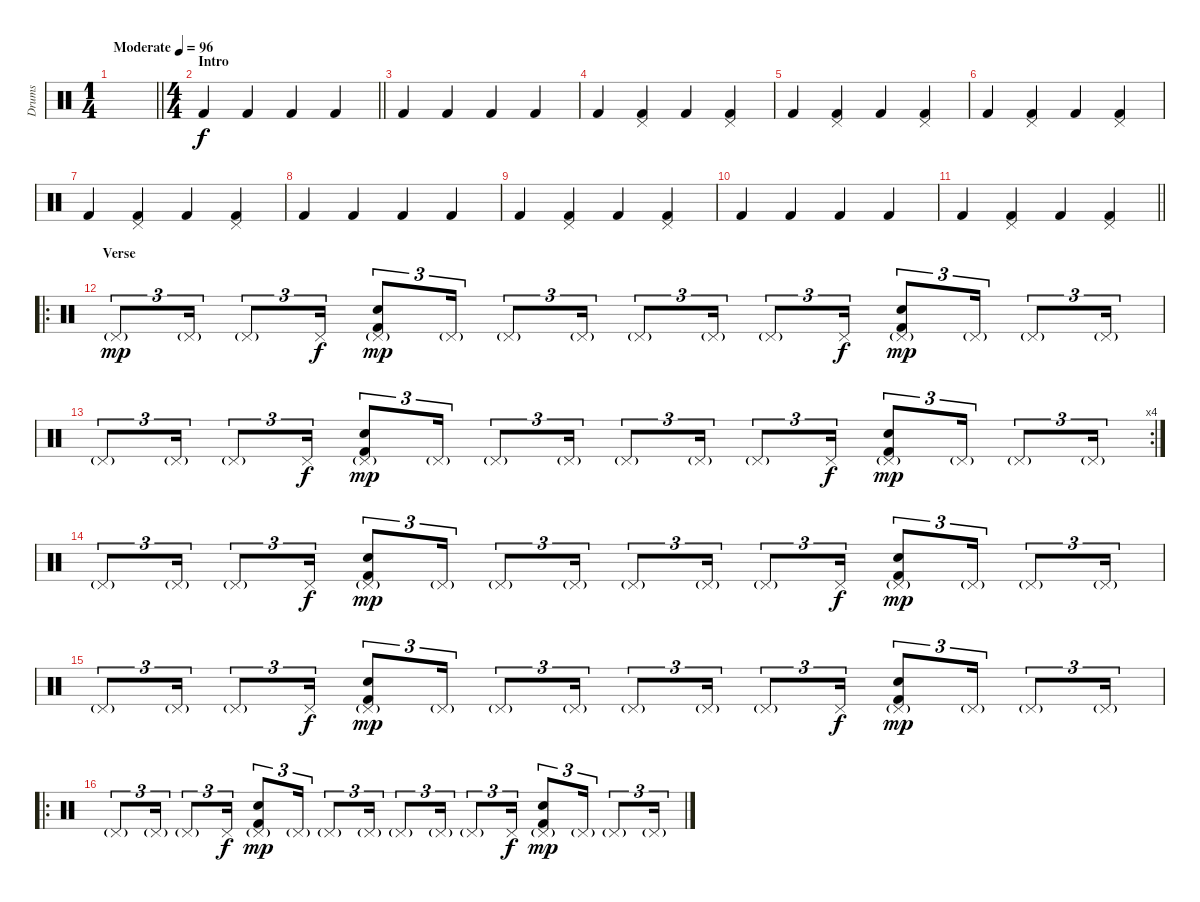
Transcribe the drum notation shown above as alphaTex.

\track ("Drums" "Drums") {instrument percussion}
\staff {score}
\articulation defaults
\ts (1 4)
\tempo (96 "Moderate")
\clef neutral
\barLineRight lightlight
\ks c
|
\ts (4 4)
\section ("" "Intro")
\barLineRight lightlight "Kick (hit) 2".4 "Kick (hit) 2".4 "Kick (hit) 2".4 "Kick (hit) 2".4
|
"Kick (hit) 2".4 "Kick (hit) 2".4 "Kick (hit) 2".4 "Kick (hit) 2".4 |
"Kick (hit) 2".4 ("Pedal Hi-Hat (hit)" "Kick (hit) 2").4 "Kick (hit) 2".4 ("Pedal Hi-Hat (hit)" "Kick (hit) 2").4 |
"Kick (hit) 2".4 ("Pedal Hi-Hat (hit)" "Kick (hit) 2").4 "Kick (hit) 2".4 ("Pedal Hi-Hat (hit)" "Kick (hit) 2").4 |
"Kick (hit) 2".4 ("Pedal Hi-Hat (hit)" "Kick (hit) 2").4 "Kick (hit) 2".4 ("Pedal Hi-Hat (hit)" "Kick (hit) 2").4 |
"Kick (hit) 2".4 ("Pedal Hi-Hat (hit)" "Kick (hit) 2").4 "Kick (hit) 2".4 ("Pedal Hi-Hat (hit)" "Kick (hit) 2").4 |
"Kick (hit) 2".4 "Kick (hit) 2".4 "Kick (hit) 2".4 "Kick (hit) 2".4 |
"Kick (hit) 2".4 ("Pedal Hi-Hat (hit)" "Kick (hit) 2").4 "Kick (hit) 2".4 ("Pedal Hi-Hat (hit)" "Kick (hit) 2").4 |
"Kick (hit) 2".4 "Kick (hit) 2".4 "Kick (hit) 2".4 "Kick (hit) 2".4 |
\barLineRight lightlight "Kick (hit) 2".4
("Pedal Hi-Hat (hit)" "Kick (hit) 2").4 "Kick (hit) 2".4 ("Pedal Hi-Hat (hit)" "Kick (hit) 2").4 |
\ro
\section ("" "Verse")
"Pedal Hi-Hat (hit)"{g}.8{tu (3 2) dy mp} "Pedal Hi-Hat (hit)"{g}.16{tu (3 2)} "Pedal Hi-Hat (hit)"{g}.8{tu (3 2)} "Pedal Hi-Hat (hit)".16{tu (3 2) dy f} ("Pedal Hi-Hat (hit)"{g} "Electric Snare (hit)" "Kick (hit) 2").8{tu (3 2) dy mp} "Pedal Hi-Hat (hit)"{g}.16{tu (3 2)} "Pedal Hi-Hat (hit)"{g}.8{tu (3 2)} "Pedal Hi-Hat (hit)"{g}.16{tu (3 2)} "Pedal Hi-Hat (hit)"{g}.8{tu (3 2)} "Pedal Hi-Hat (hit)"{g}.16{tu (3 2)} "Pedal Hi-Hat (hit)"{g}.8{tu (3 2)} "Pedal Hi-Hat (hit)".16{tu (3 2) dy f} ("Pedal Hi-Hat (hit)"{g} "Electric Snare (hit)" "Kick (hit) 2").8{tu (3 2) dy mp} "Pedal Hi-Hat (hit)"{g}.16{tu (3 2)} "Pedal Hi-Hat (hit)"{g}.8{tu (3 2)} "Pedal Hi-Hat (hit)"{g}.16{tu (3 2)} |
\rc 4 "Pedal Hi-Hat (hit)"{g}.8{tu (3 2)} "Pedal Hi-Hat (hit)"{g}.16{tu (3 2)} "Pedal Hi-Hat (hit)"{g}.8{tu (3 2)} "Pedal Hi-Hat (hit)".16{tu (3 2) dy f}
("Pedal Hi-Hat (hit)"{g} "Electric Snare (hit)" "Kick (hit) 2").8{tu (3 2) dy mp} "Pedal Hi-Hat (hit)"{g}.16{tu (3 2)} "Pedal Hi-Hat (hit)"{g}.8{tu (3 2)} "Pedal Hi-Hat (hit)"{g}.16{tu (3 2)} "Pedal Hi-Hat (hit)"{g}.8{tu (3 2)} "Pedal Hi-Hat (hit)"{g}.16{tu (3 2)} "Pedal Hi-Hat (hit)"{g}.8{tu (3 2)} "Pedal Hi-Hat (hit)".16{tu (3 2) dy f} ("Pedal Hi-Hat (hit)"{g} "Electric Snare (hit)" "Kick (hit) 2").8{tu (3 2) dy mp} "Pedal Hi-Hat (hit)"{g}.16{tu (3 2)} "Pedal Hi-Hat (hit)"{g}.8{tu (3 2)} "Pedal Hi-Hat (hit)"{g}.16{tu (3 2)} |
"Pedal Hi-Hat (hit)"{g}.8{tu (3 2)} "Pedal Hi-Hat (hit)"{g}.16{tu (3 2)} "Pedal Hi-Hat (hit)"{g}.8{tu (3 2)} "Pedal Hi-Hat (hit)".16{tu (3 2) dy f} ("Pedal Hi-Hat (hit)"{g} "Electric Snare (hit)" "Kick (hit) 2").8{tu (3 2) dy mp} "Pedal Hi-Hat (hit)"{g}.16{tu (3 2)} "Pedal Hi-Hat (hit)"{g}.8{tu (3 2)} "Pedal Hi-Hat (hit)"{g}.16{tu (3 2)} "Pedal Hi-Hat (hit)"{g}.8{tu (3 2)} "Pedal Hi-Hat (hit)"{g}.16{tu (3 2)} "Pedal Hi-Hat (hit)"{g}.8{tu (3 2)} "Pedal Hi-Hat (hit)".16{tu (3 2) dy f} ("Pedal Hi-Hat (hit)"{g} "Electric Snare (hit)" "Kick (hit) 2").8{tu (3 2) dy mp} "Pedal Hi-Hat (hit)"{g}.16{tu (3 2)} "Pedal Hi-Hat (hit)"{g}.8{tu (3 2)} "Pedal Hi-Hat (hit)"{g}.16{tu (3 2)} |
"Pedal Hi-Hat (hit)"{g}.8{tu (3 2)} "Pedal Hi-Hat (hit)"{g}.16{tu (3 2)} "Pedal Hi-Hat (hit)"{g}.8{tu (3 2)} "Pedal Hi-Hat (hit)".16{tu (3 2) dy f} ("Pedal Hi-Hat (hit)"{g} "Electric Snare (hit)" "Kick (hit) 2").8{tu (3 2) dy mp} "Pedal Hi-Hat (hit)"{g}.16{tu (3 2)} "Pedal Hi-Hat (hit)"{g}.8{tu (3 2)} "Pedal Hi-Hat (hit)"{g}.16{tu (3 2)} "Pedal Hi-Hat (hit)"{g}.8{tu (3 2)} "Pedal Hi-Hat (hit)"{g}.16{tu (3 2)} "Pedal Hi-Hat (hit)"{g}.8{tu (3 2)} "Pedal Hi-Hat (hit)".16{tu (3 2) dy f} ("Pedal Hi-Hat (hit)"{g} "Electric Snare (hit)" "Kick (hit) 2").8{tu (3 2) dy mp} "Pedal Hi-Hat (hit)"{g}.16{tu (3 2)} "Pedal Hi-Hat (hit)"{g}.8{tu (3 2)} "Pedal Hi-Hat (hit)"{g}.16{tu (3 2)} |
\ro "Pedal Hi-Hat (hit)"{g}.8{tu (3 2)} "Pedal Hi-Hat (hit)"{g}.16{tu (3 2)} "Pedal Hi-Hat (hit)"{g}.8{tu (3 2)} "Pedal Hi-Hat (hit)".16{tu (3 2) dy f}
("Pedal Hi-Hat (hit)"{g} "Electric Snare (hit)" "Kick (hit) 2").8{tu (3 2) dy mp} "Pedal Hi-Hat (hit)"{g}.16{tu (3 2)} "Pedal Hi-Hat (hit)"{g}.8{tu (3 2)} "Pedal Hi-Hat (hit)"{g}.16{tu (3 2)} "Pedal Hi-Hat (hit)"{g}.8{tu (3 2)} "Pedal Hi-Hat (hit)"{g}.16{tu (3 2)} "Pedal Hi-Hat (hit)"{g}.8{tu (3 2)} "Pedal Hi-Hat (hit)".16{tu (3 2) dy f} ("Pedal Hi-Hat (hit)"{g} "Electric Snare (hit)" "Kick (hit) 2").8{tu (3 2) dy mp} "Pedal Hi-Hat (hit)"{g}.16{tu (3 2)} "Pedal Hi-Hat (hit)"{g}.8{tu (3 2)} "Pedal Hi-Hat (hit)"{g}.16{tu (3 2)}
